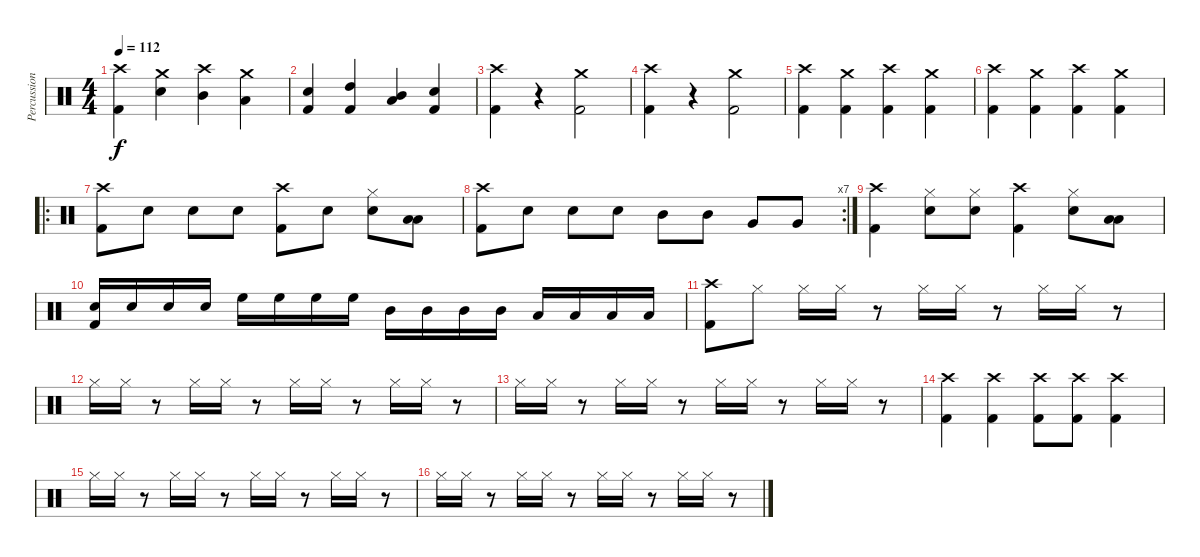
\track ("Percussion" "Percussion") {instrument percussion}
\staff {score}
\articulation defaults
\ts (4 4)
\tempo 112
\clef neutral
\ks c
("Crash high (hit)" "Kick (hit) 2").4{dy f} ("Crash medium (hit)" "Snare (hit) 2").4 ("Crash high (hit)" "Mid Tom (hit)").4 ("Crash medium (hit)" "Low Floor Tom (hit)").4 |
("Snare (hit) 2" "Kick (hit) 2").4 ("Kick (hit) 2" "High Tom (hit)").4 ("Mid Tom (hit)" "Low Floor Tom (hit)").4 ("Snare (hit) 2" "Kick (hit) 2").4 |
("Crash high (hit)" "Kick (hit) 2").4 r.4 ("Crash medium (hit)" "Kick (hit) 2").2 |
("Crash high (hit)" "Kick (hit) 2").4 r.4 ("Crash medium (hit)" "Kick (hit) 2").2 |
("Crash high (hit)" "Kick (hit) 2").4 ("Crash medium (hit)" "Kick (hit) 2").4 ("Crash high (hit)" "Kick (hit) 2").4 ("Crash medium (hit)" "Kick (hit) 2").4 |
("Crash high (hit)" "Kick (hit) 2").4 ("Crash medium (hit)" "Kick (hit) 2").4 ("Crash high (hit)" "Kick (hit) 2").4 ("Crash medium (hit)" "Kick (hit) 2").4 |
\ro
("Crash high (hit)" "Kick (hit) 2").8 "Snare (hit) 2".8 "Snare (hit) 2".8 "Snare (hit) 2".8 ("Crash high (hit)" "Kick (hit) 2").8 "Snare (hit) 2".8 ("Hi-Hat (closed)" "Snare (hit) 2").8 ("Low Floor Tom (hit)" "Low Tom (hit)").8 |
\rc 7
("Crash high (hit)" "Kick (hit) 2").8 "Snare (hit) 2".8 "Snare (hit) 2".8 "Snare (hit) 2".8 "Mid Tom (hit)".8 "Mid Tom (hit)".8 "Very Low Tom (hit)".8 "Very Low Tom (hit)".8 |
("Crash high (hit)" "Kick (hit) 2").4 ("Hi-Hat (closed)" "Snare (hit) 2").8 ("Hi-Hat (closed)" "Snare (hit) 2").8 ("Crash high (hit)" "Kick (hit) 2").4 ("Hi-Hat (closed)" "Snare (hit) 2").8 ("Low Floor Tom (hit)" "Low Tom (hit)").8 |
("Snare (hit) 2" "Kick (hit) 2").16 "Snare (hit) 2".16 "Snare (hit) 2".16 "Snare (hit) 2".16 "High Floor Tom (hit)".16 "High Floor Tom (hit)".16 "High Floor Tom (hit)".16 "High Floor Tom (hit)".16 "Mid Tom (hit)".16 "Mid Tom (hit)".16 "Mid Tom (hit)".16 "Mid Tom (hit)".16 "Low Floor Tom (hit)".16 "Low Floor Tom (hit)".16 "Low Floor Tom (hit)".16 "Low Floor Tom (hit)".16 |
("Crash high (hit)" "Kick (hit) 2").8 "Hi-Hat (closed)".8 "Hi-Hat (closed)".16 "Hi-Hat (closed)".16 r.8 "Hi-Hat (closed)".16 "Hi-Hat (closed)".16 r.8 "Hi-Hat (closed)".16 "Hi-Hat (closed)".16 r.8 |
"Hi-Hat (closed)".16 "Hi-Hat (closed)".16 r.8 "Hi-Hat (closed)".16 "Hi-Hat (closed)".16 r.8 "Hi-Hat (closed)".16 "Hi-Hat (closed)".16 r.8 "Hi-Hat (closed)".16 "Hi-Hat (closed)".16 r.8 |
"Hi-Hat (closed)".16 "Hi-Hat (closed)".16 r.8 "Hi-Hat (closed)".16 "Hi-Hat (closed)".16 r.8 "Hi-Hat (closed)".16 "Hi-Hat (closed)".16 r.8 "Hi-Hat (closed)".16 "Hi-Hat (closed)".16 r.8 |
("Crash high (hit)" "Kick (hit) 2").4 ("Crash high (hit)" "Kick (hit) 2").4 ("Crash high (hit)" "Kick (hit) 2").8 ("Crash high (hit)" "Kick (hit) 2").8 ("Crash high (hit)" "Kick (hit) 2").4 |
"Hi-Hat (closed)".16 "Hi-Hat (closed)".16 r.8 "Hi-Hat (closed)".16 "Hi-Hat (closed)".16 r.8 "Hi-Hat (closed)".16 "Hi-Hat (closed)".16 r.8 "Hi-Hat (closed)".16 "Hi-Hat (closed)".16 r.8 |
"Hi-Hat (closed)".16 "Hi-Hat (closed)".16 r.8 "Hi-Hat (closed)".16 "Hi-Hat (closed)".16 r.8 "Hi-Hat (closed)".16 "Hi-Hat (closed)".16 r.8 "Hi-Hat (closed)".16 "Hi-Hat (closed)".16 r.8
